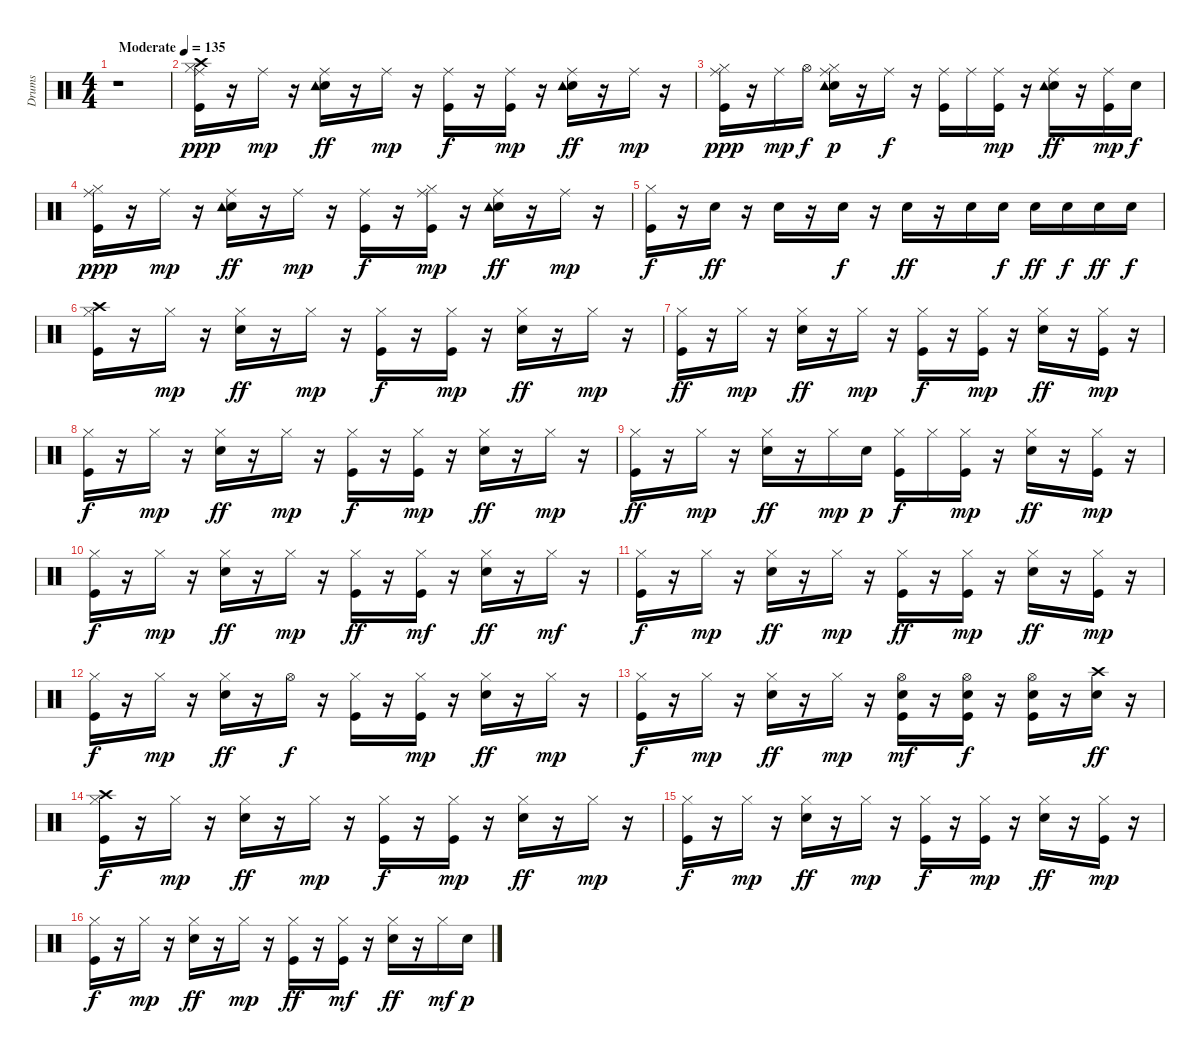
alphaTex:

\track ("Drums   " "Drums   ") {instrument percussion}
\staff {score}
\articulation defaults
\ts (4 4)
\tempo (135 "Moderate")
\clef neutral
\ks c
r.1{dy ppp} |
("Kick (hit)" "Hi-Hat (closed)" "Ride (middle)" "Crash high (hit)").16 r.16 "Ride (middle)".16{dy mp} r.16 ("Snare (hit) 2" "Ride (middle)" "Tambourine (hit)").16{dy ff} r.16 "Ride (middle)".16{dy mp} r.16 ("Kick (hit)" "Ride (middle)").16{dy f} r.16 ("Kick (hit)" "Ride (middle)").16{dy mp} r.16 ("Snare (hit) 2" "Ride (middle)" "Tambourine (hit)").16{dy ff} r.16 "Ride (middle)".16{dy mp} r.16 |
("Kick (hit)" "Hi-Hat (closed)" "Ride (middle)").16{dy ppp} r.16 "Ride (middle)".16{dy mp} "Hi-Hat (open)".16{dy f} ("Snare (hit) 2" "Hi-Hat (closed)" "Ride (middle)" "Tambourine (hit)").16{dy p} r.16 "Ride (middle)".16{dy f} r.16 ("Kick (hit)" "Ride (middle)").16 "Ride (middle)".16 ("Kick (hit)" "Ride (middle)").16{dy mp} r.16 ("Snare (hit) 2" "Ride (middle)" "Tambourine (hit)").16{dy ff} r.16 ("Kick (hit)" "Ride (middle)").16{dy mp} "Snare (hit) 2".16{dy f} |
("Kick (hit)" "Hi-Hat (closed)" "Ride (middle)").16{dy ppp} r.16 "Ride (middle)".16{dy mp} r.16 ("Snare (hit) 2" "Ride (middle)" "Tambourine (hit)").16{dy ff} r.16 "Ride (middle)".16{dy mp} r.16 ("Kick (hit)" "Ride (middle)").16{dy f} r.16 ("Kick (hit)" "Hi-Hat (closed)" "Ride (middle)").16{dy mp} r.16 ("Snare (hit) 2" "Ride (middle)" "Tambourine (hit)").16{dy ff} r.16 "Ride (middle)".16{dy mp} r.16 |
("Kick (hit)" "Hi-Hat (closed)").16{dy f} r.16 "Snare (hit) 2".16{dy ff} r.16 "Snare (hit) 2".16 r.16 "Snare (hit) 2".16{dy f} r.16 "Snare (hit) 2".16{dy ff} r.16 "Snare (hit) 2".16 "Snare (hit) 2".16{dy f} "Snare (hit) 2".16{dy ff} "Snare (hit) 2".16{dy f} "Snare (hit) 2".16{dy ff} "Snare (hit) 2".16{dy f} |
("Kick (hit)" "Hi-Hat (closed)" "Crash high (hit)").16 r.16 "Hi-Hat (closed)".16{dy mp} r.16 ("Snare (hit) 2" "Hi-Hat (closed)").16{dy ff} r.16 "Hi-Hat (closed)".16{dy mp} r.16 ("Kick (hit)" "Hi-Hat (closed)").16{dy f} r.16 ("Kick (hit)" "Hi-Hat (closed)").16{dy mp} r.16 ("Snare (hit) 2" "Hi-Hat (closed)").16{dy ff} r.16 "Hi-Hat (closed)".16{dy mp} r.16 |
("Kick (hit)" "Hi-Hat (closed)").16{dy ff} r.16 "Hi-Hat (closed)".16{dy mp} r.16 ("Snare (hit) 2" "Hi-Hat (closed)").16{dy ff} r.16 "Hi-Hat (closed)".16{dy mp} r.16 ("Kick (hit)" "Hi-Hat (closed)").16{dy f} r.16 ("Kick (hit)" "Hi-Hat (closed)").16{dy mp} r.16 ("Snare (hit) 2" "Hi-Hat (closed)").16{dy ff} r.16 ("Kick (hit)" "Hi-Hat (closed)").16{dy mp} r.16 |
("Kick (hit)" "Hi-Hat (closed)").16{dy f} r.16 "Hi-Hat (closed)".16{dy mp} r.16 ("Snare (hit) 2" "Hi-Hat (closed)").16{dy ff} r.16 "Hi-Hat (closed)".16{dy mp} r.16 ("Kick (hit)" "Hi-Hat (closed)").16{dy f} r.16 ("Kick (hit)" "Hi-Hat (closed)").16{dy mp} r.16 ("Snare (hit) 2" "Hi-Hat (closed)").16{dy ff} r.16 "Hi-Hat (closed)".16{dy mp} r.16 |
("Kick (hit)" "Hi-Hat (closed)").16{dy ff} r.16 "Hi-Hat (closed)".16{dy mp} r.16 ("Snare (hit) 2" "Hi-Hat (closed)").16{dy ff} r.16 "Hi-Hat (closed)".16{dy mp} "Snare (hit) 2".16{dy p} ("Kick (hit)" "Hi-Hat (closed)").16{dy f} "Hi-Hat (closed)".16 ("Kick (hit)" "Hi-Hat (closed)").16{dy mp} r.16 ("Snare (hit) 2" "Hi-Hat (closed)").16{dy ff} r.16 ("Kick (hit)" "Hi-Hat (closed)").16{dy mp} r.16 |
("Kick (hit)" "Hi-Hat (closed)").16{dy f} r.16 "Hi-Hat (closed)".16{dy mp} r.16 ("Snare (hit) 2" "Hi-Hat (closed)").16{dy ff} r.16 "Hi-Hat (closed)".16{dy mp} r.16 ("Kick (hit)" "Hi-Hat (closed)").16{dy ff} r.16 ("Kick (hit)" "Hi-Hat (closed)").16{dy mf} r.16 ("Snare (hit) 2" "Hi-Hat (closed)").16{dy ff} r.16 "Hi-Hat (closed)".16{dy mf} r.16 |
("Kick (hit)" "Hi-Hat (closed)").16{dy f} r.16 "Hi-Hat (closed)".16{dy mp} r.16 ("Snare (hit) 2" "Hi-Hat (closed)").16{dy ff} r.16 "Hi-Hat (closed)".16{dy mp} r.16 ("Kick (hit)" "Hi-Hat (closed)").16{dy ff} r.16 ("Kick (hit)" "Hi-Hat (closed)").16{dy mp} r.16 ("Snare (hit) 2" "Hi-Hat (closed)").16{dy ff} r.16 ("Kick (hit)" "Hi-Hat (closed)").16{dy mp} r.16 |
("Kick (hit)" "Hi-Hat (closed)").16{dy f} r.16 "Hi-Hat (closed)".16{dy mp} r.16 ("Snare (hit) 2" "Hi-Hat (closed)").16{dy ff} r.16 "Hi-Hat (open)".16{dy f} r.16 ("Kick (hit)" "Hi-Hat (closed)").16 r.16 ("Kick (hit)" "Hi-Hat (closed)").16{dy mp} r.16 ("Snare (hit) 2" "Hi-Hat (closed)").16{dy ff} r.16 "Hi-Hat (closed)".16{dy mp} r.16 |
("Kick (hit)" "Hi-Hat (closed)").16{dy f} r.16 "Hi-Hat (closed)".16{dy mp} r.16 ("Snare (hit) 2" "Hi-Hat (closed)").16{dy ff} r.16 "Hi-Hat (closed)".16{dy mp} r.16 ("Kick (hit)" "Snare (hit) 2" "Hi-Hat (open)").16{dy mf} r.16 ("Kick (hit)" "Snare (hit) 2" "Hi-Hat (open)").16{dy f} r.16 ("Kick (hit)" "Snare (hit) 2" "Hi-Hat (open)").16 r.16 ("Snare (hit) 2" "Crash high (hit)").16{dy ff} r.16 |
("Kick (hit)" "Hi-Hat (closed)" "Crash high (hit)").16{dy f} r.16 "Hi-Hat (closed)".16{dy mp} r.16 ("Snare (hit) 2" "Hi-Hat (closed)").16{dy ff} r.16 "Hi-Hat (closed)".16{dy mp} r.16 ("Kick (hit)" "Hi-Hat (closed)").16{dy f} r.16 ("Kick (hit)" "Hi-Hat (closed)").16{dy mp} r.16 ("Snare (hit) 2" "Hi-Hat (closed)").16{dy ff} r.16 "Hi-Hat (closed)".16{dy mp} r.16 |
("Kick (hit)" "Hi-Hat (closed)").16{dy f} r.16 "Hi-Hat (closed)".16{dy mp} r.16 ("Snare (hit) 2" "Hi-Hat (closed)").16{dy ff} r.16 "Hi-Hat (closed)".16{dy mp} r.16 ("Kick (hit)" "Hi-Hat (closed)").16{dy f} r.16 ("Kick (hit)" "Hi-Hat (closed)").16{dy mp} r.16 ("Snare (hit) 2" "Hi-Hat (closed)").16{dy ff} r.16 ("Kick (hit)" "Hi-Hat (closed)").16{dy mp} r.16 |
("Kick (hit)" "Hi-Hat (closed)").16{dy f} r.16 "Hi-Hat (closed)".16{dy mp} r.16 ("Snare (hit) 2" "Hi-Hat (closed)").16{dy ff} r.16 "Hi-Hat (closed)".16{dy mp} r.16 ("Kick (hit)" "Hi-Hat (closed)").16{dy ff} r.16 ("Kick (hit)" "Hi-Hat (closed)").16{dy mf} r.16 ("Snare (hit) 2" "Hi-Hat (closed)").16{dy ff} r.16 "Hi-Hat (closed)".16{dy mf} "Snare (hit) 2".16{dy p}
